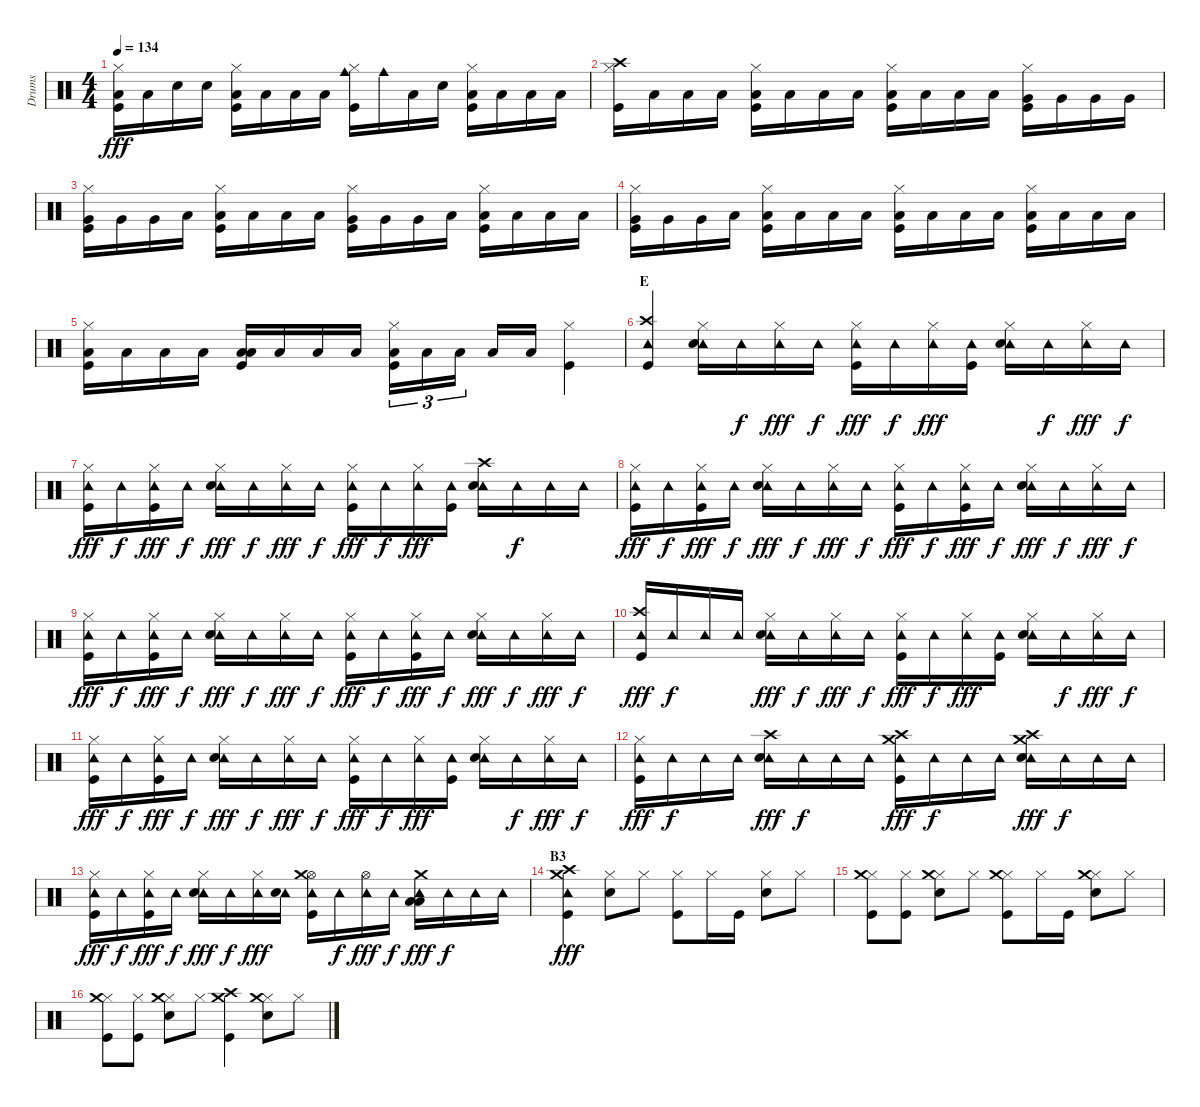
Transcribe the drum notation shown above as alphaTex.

\track ("Drums" "Drums") {instrument percussion}
\staff {score}
\articulation defaults
\ts (4 4)
\tempo 134
\clef neutral
\ks c
("Hi-Hat (closed)" "Low Floor Tom (hit)" "Kick (hit)").16{dy fff} "Low Floor Tom (hit)".16 "Snare (hit) 2".16 "Snare (hit) 2".16 ("Hi-Hat (closed)" "Low Floor Tom (hit)" "Kick (hit)").16 "Low Tom (hit)".16 "Low Floor Tom (hit)".16 "Low Floor Tom (hit)".16 ("Hi-Hat (closed)" "Cowbell medium (hit)" "Kick (hit)").16 "Cowbell medium (hit)".16 "Low Floor Tom (hit)".16 "Snare (hit) 2".16 ("Hi-Hat (closed)" "Low Floor Tom (hit)" "Kick (hit)").16 "Low Floor Tom (hit)".16 "Low Tom (hit)".16 "Low Tom (hit)".16 |
("Hi-Hat (closed)" "Crash high (hit)" "Kick (hit)").16 "Low Tom (hit)".16 "Low Tom (hit)".16 "Low Tom (hit)".16 ("Hi-Hat (closed)" "Low Tom (hit)" "Kick (hit)").16 "Low Tom (hit)".16 "Low Tom (hit)".16 "Low Tom (hit)".16 ("Hi-Hat (closed)" "Low Tom (hit)" "Kick (hit)").16 "Low Tom (hit)".16 "Low Tom (hit)".16 "Low Tom (hit)".16 ("Hi-Hat (closed)" "Very Low Tom (hit)" "Kick (hit)").16 "Very Low Tom (hit)".16 "Very Low Tom (hit)".16 "Very Low Tom (hit)".16 |
("Hi-Hat (closed)" "Very Low Tom (hit)" "Kick (hit)").16 "Very Low Tom (hit)".16 "Very Low Tom (hit)".16 "Low Tom (hit)".16 ("Hi-Hat (closed)" "Low Tom (hit)" "Kick (hit)").16 "Low Tom (hit)".16 "Low Tom (hit)".16 "Low Tom (hit)".16 ("Hi-Hat (closed)" "Very Low Tom (hit)" "Kick (hit)").16 "Very Low Tom (hit)".16 "Very Low Tom (hit)".16 "Low Tom (hit)".16 ("Hi-Hat (closed)" "Low Tom (hit)" "Kick (hit)").16 "Low Tom (hit)".16 "Low Tom (hit)".16 "Low Tom (hit)".16 |
("Hi-Hat (closed)" "Very Low Tom (hit)" "Kick (hit)").16 "Very Low Tom (hit)".16 "Very Low Tom (hit)".16 "Low Tom (hit)".16 ("Hi-Hat (closed)" "Low Tom (hit)" "Kick (hit)").16 "Low Tom (hit)".16 "Low Tom (hit)".16 "Low Tom (hit)".16 ("Hi-Hat (closed)" "Low Tom (hit)" "Kick (hit)").16 "Low Tom (hit)".16 "Low Tom (hit)".16 "Low Floor Tom (hit)".16 ("Hi-Hat (closed)" "Low Floor Tom (hit)" "Kick (hit)").16 "Low Floor Tom (hit)".16 "Low Floor Tom (hit)".16 "Low Floor Tom (hit)".16 |
("Hi-Hat (closed)" "Low Floor Tom (hit)" "Kick (hit)").16 "Low Floor Tom (hit)".16 "Low Floor Tom (hit)".16 "Low Floor Tom (hit)".16 ("Low Tom (hit)" "Low Floor Tom (hit)" "Kick (hit)").16 "Low Floor Tom (hit)".16 "Low Floor Tom (hit)".16 "Low Floor Tom (hit)".16 ("Hi-Hat (closed)" "Low Floor Tom (hit)" "Kick (hit)").16{tu (3 2)} "Low Floor Tom (hit)".16{tu (3 2)} "Low Floor Tom (hit)".16{tu (3 2)} "Low Floor Tom (hit)".16 "Low Floor Tom (hit)".16 ("Hi-Hat (closed)" "Kick (hit)").4 |
\section ("" "E")
("Crash high (hit)" "Tambourine (hit)" "Kick (hit)").4 ("Hi-Hat (closed)" "Tambourine (hit)" "Snare (hit) 2").16 "Tambourine (hit)".16{dy f} ("Hi-Hat (closed)" "Tambourine (hit)").16{dy fff} "Tambourine (hit)".16{dy f} ("Hi-Hat (closed)" "Tambourine (hit)" "Kick (hit)").16{dy fff} "Tambourine (hit)".16{dy f} ("Hi-Hat (closed)" "Tambourine (hit)").16{dy fff} ("Tambourine (hit)" "Kick (hit)").16 ("Hi-Hat (closed)" "Tambourine (hit)" "Snare (hit) 2").16 "Tambourine (hit)".16{dy f} ("Hi-Hat (closed)" "Tambourine (hit)").16{dy fff} "Tambourine (hit)".16{dy f} |
("Hi-Hat (closed)" "Tambourine (hit)" "Kick (hit)").16{dy fff} "Tambourine (hit)".16{dy f} ("Hi-Hat (closed)" "Tambourine (hit)" "Kick (hit)").16{dy fff} "Tambourine (hit)".16{dy f} ("Hi-Hat (closed)" "Tambourine (hit)" "Snare (hit) 2").16{dy fff} "Tambourine (hit)".16{dy f} ("Hi-Hat (closed)" "Tambourine (hit)").16{dy fff} "Tambourine (hit)".16{dy f} ("Hi-Hat (closed)" "Tambourine (hit)" "Kick (hit)").16{dy fff} "Tambourine (hit)".16{dy f} ("Hi-Hat (closed)" "Tambourine (hit)").16{dy fff} ("Tambourine (hit)" "Kick (hit)").16 ("Crash high (hit)" "Tambourine (hit)" "Snare (hit) 2").16 "Tambourine (hit)".16{dy f} "Tambourine (hit)".16 "Tambourine (hit)".16 |
("Hi-Hat (closed)" "Tambourine (hit)" "Kick (hit)").16{dy fff} "Tambourine (hit)".16{dy f} ("Hi-Hat (closed)" "Tambourine (hit)" "Kick (hit)").16{dy fff} "Tambourine (hit)".16{dy f} ("Hi-Hat (closed)" "Tambourine (hit)" "Snare (hit) 2").16{dy fff} "Tambourine (hit)".16{dy f} ("Hi-Hat (closed)" "Tambourine (hit)").16{dy fff} "Tambourine (hit)".16{dy f} ("Hi-Hat (closed)" "Tambourine (hit)" "Kick (hit)").16{dy fff} "Tambourine (hit)".16{dy f} ("Hi-Hat (closed)" "Tambourine (hit)" "Kick (hit)").16{dy fff} "Tambourine (hit)".16{dy f} ("Hi-Hat (closed)" "Tambourine (hit)" "Snare (hit) 2").16{dy fff} "Tambourine (hit)".16{dy f} ("Hi-Hat (closed)" "Tambourine (hit)").16{dy fff} "Tambourine (hit)".16{dy f} |
("Hi-Hat (closed)" "Tambourine (hit)" "Kick (hit)").16{dy fff} "Tambourine (hit)".16{dy f} ("Hi-Hat (closed)" "Tambourine (hit)" "Kick (hit)").16{dy fff} "Tambourine (hit)".16{dy f} ("Hi-Hat (closed)" "Tambourine (hit)" "Snare (hit) 2").16{dy fff} "Tambourine (hit)".16{dy f} ("Hi-Hat (closed)" "Tambourine (hit)").16{dy fff} "Tambourine (hit)".16{dy f} ("Hi-Hat (closed)" "Tambourine (hit)" "Kick (hit)").16{dy fff} "Tambourine (hit)".16{dy f} ("Hi-Hat (closed)" "Tambourine (hit)" "Kick (hit)").16{dy fff} "Tambourine (hit)".16{dy f} ("Hi-Hat (closed)" "Tambourine (hit)" "Snare (hit) 2").16{dy fff} "Tambourine (hit)".16{dy f} ("Hi-Hat (closed)" "Tambourine (hit)").16{dy fff} "Tambourine (hit)".16{dy f} |
("Crash high (hit)" "Tambourine (hit)" "Kick (hit)").16{dy fff} "Tambourine (hit)".16{dy f} "Tambourine (hit)".16 "Tambourine (hit)".16 ("Hi-Hat (closed)" "Tambourine (hit)" "Snare (hit) 2").16{dy fff} "Tambourine (hit)".16{dy f} ("Hi-Hat (closed)" "Tambourine (hit)").16{dy fff} "Tambourine (hit)".16{dy f} ("Hi-Hat (closed)" "Tambourine (hit)" "Kick (hit)").16{dy fff} "Tambourine (hit)".16{dy f} ("Hi-Hat (closed)" "Tambourine (hit)").16{dy fff} ("Tambourine (hit)" "Kick (hit)").16 ("Hi-Hat (closed)" "Tambourine (hit)" "Snare (hit) 2").16 "Tambourine (hit)".16{dy f} ("Hi-Hat (closed)" "Tambourine (hit)").16{dy fff} "Tambourine (hit)".16{dy f} |
("Hi-Hat (closed)" "Tambourine (hit)" "Kick (hit)").16{dy fff} "Tambourine (hit)".16{dy f} ("Hi-Hat (closed)" "Tambourine (hit)" "Kick (hit)").16{dy fff} "Tambourine (hit)".16{dy f} ("Hi-Hat (closed)" "Tambourine (hit)" "Snare (hit) 2").16{dy fff} "Tambourine (hit)".16{dy f} ("Hi-Hat (closed)" "Tambourine (hit)").16{dy fff} "Tambourine (hit)".16{dy f} ("Hi-Hat (closed)" "Tambourine (hit)" "Kick (hit)").16{dy fff} "Tambourine (hit)".16{dy f} ("Hi-Hat (closed)" "Tambourine (hit)").16{dy fff} ("Tambourine (hit)" "Kick (hit)").16 ("Hi-Hat (closed)" "Tambourine (hit)" "Snare (hit) 2").16 "Tambourine (hit)".16{dy f} ("Hi-Hat (closed)" "Tambourine (hit)").16{dy fff} "Tambourine (hit)".16{dy f} |
("Hi-Hat (closed)" "Tambourine (hit)" "Kick (hit)").16{dy fff} "Tambourine (hit)".16{dy f} "Tambourine (hit)".16 "Tambourine (hit)".16 ("Crash high (hit)" "Tambourine (hit)" "Snare (hit) 2").16{dy fff} "Tambourine (hit)".16{dy f} "Tambourine (hit)".16 "Tambourine (hit)".16 ("Crash high (hit)" "Tambourine (hit)" "Crash medium (hit)" "Kick (hit)").16{dy fff} "Tambourine (hit)".16{dy f} "Tambourine (hit)".16 "Tambourine (hit)".16 ("Crash high (hit)" "Tambourine (hit)" "Crash medium (hit)" "Snare (hit) 2").16{dy fff} "Tambourine (hit)".16{dy f} "Tambourine (hit)".16 "Tambourine (hit)".16 |
("Hi-Hat (closed)" "Tambourine (hit)" "Kick (hit)").16{dy fff} "Tambourine (hit)".16{dy f} ("Hi-Hat (closed)" "Tambourine (hit)" "Kick (hit)").16{dy fff} "Tambourine (hit)".16{dy f} ("Hi-Hat (closed)" "Tambourine (hit)" "Snare (hit) 2").16{dy fff} "Tambourine (hit)".16{dy f} ("Hi-Hat (closed)" "Tambourine (hit)").16{dy fff} ("Tambourine (hit)" "Snare (hit) 2").16 ("Hi-Hat (open)" "Tambourine (hit)" "Crash medium (hit)" "Kick (hit)").16 "Tambourine (hit)".16{dy f} ("Hi-Hat (open)" "Tambourine (hit)").16{dy fff} "Tambourine (hit)".16{dy f} ("Tambourine (hit)" "Crash medium (hit)" "Low Tom (hit)" "Low Floor Tom (hit)").16{dy fff} "Tambourine (hit)".16{dy f} "Tambourine (hit)".16 "Tambourine (hit)".16 |
\section ("" "B3")
("Crash high (hit)" "Tambourine (hit)" "Crash medium (hit)" "Kick (hit)").4{dy fff} ("Hi-Hat (closed)" "Snare (hit) 2").8 "Hi-Hat (closed)".8 ("Hi-Hat (closed)" "Kick (hit)").8 "Hi-Hat (closed)".16 "Kick (hit)".16 ("Hi-Hat (closed)" "Snare (hit) 2").8 "Hi-Hat (closed)".8 |
("Hi-Hat (closed)" "Crash medium (hit)" "Kick (hit)").8 ("Hi-Hat (closed)" "Kick (hit)").8 ("Hi-Hat (closed)" "Crash medium (hit)" "Snare (hit) 2").8 "Hi-Hat (closed)".8 ("Hi-Hat (closed)" "Crash medium (hit)" "Kick (hit)").8 "Hi-Hat (closed)".16 "Kick (hit)".16 ("Hi-Hat (closed)" "Crash medium (hit)" "Snare (hit) 2").8 "Hi-Hat (closed)".8 |
("Hi-Hat (closed)" "Crash medium (hit)" "Kick (hit)").8 ("Hi-Hat (closed)" "Kick (hit)").8 ("Hi-Hat (closed)" "Crash medium (hit)" "Snare (hit) 2").8 "Hi-Hat (closed)".8 ("Crash high (hit)" "Crash medium (hit)" "Kick (hit)").4 ("Hi-Hat (closed)" "Crash medium (hit)" "Snare (hit) 2").8 "Hi-Hat (closed)".8
